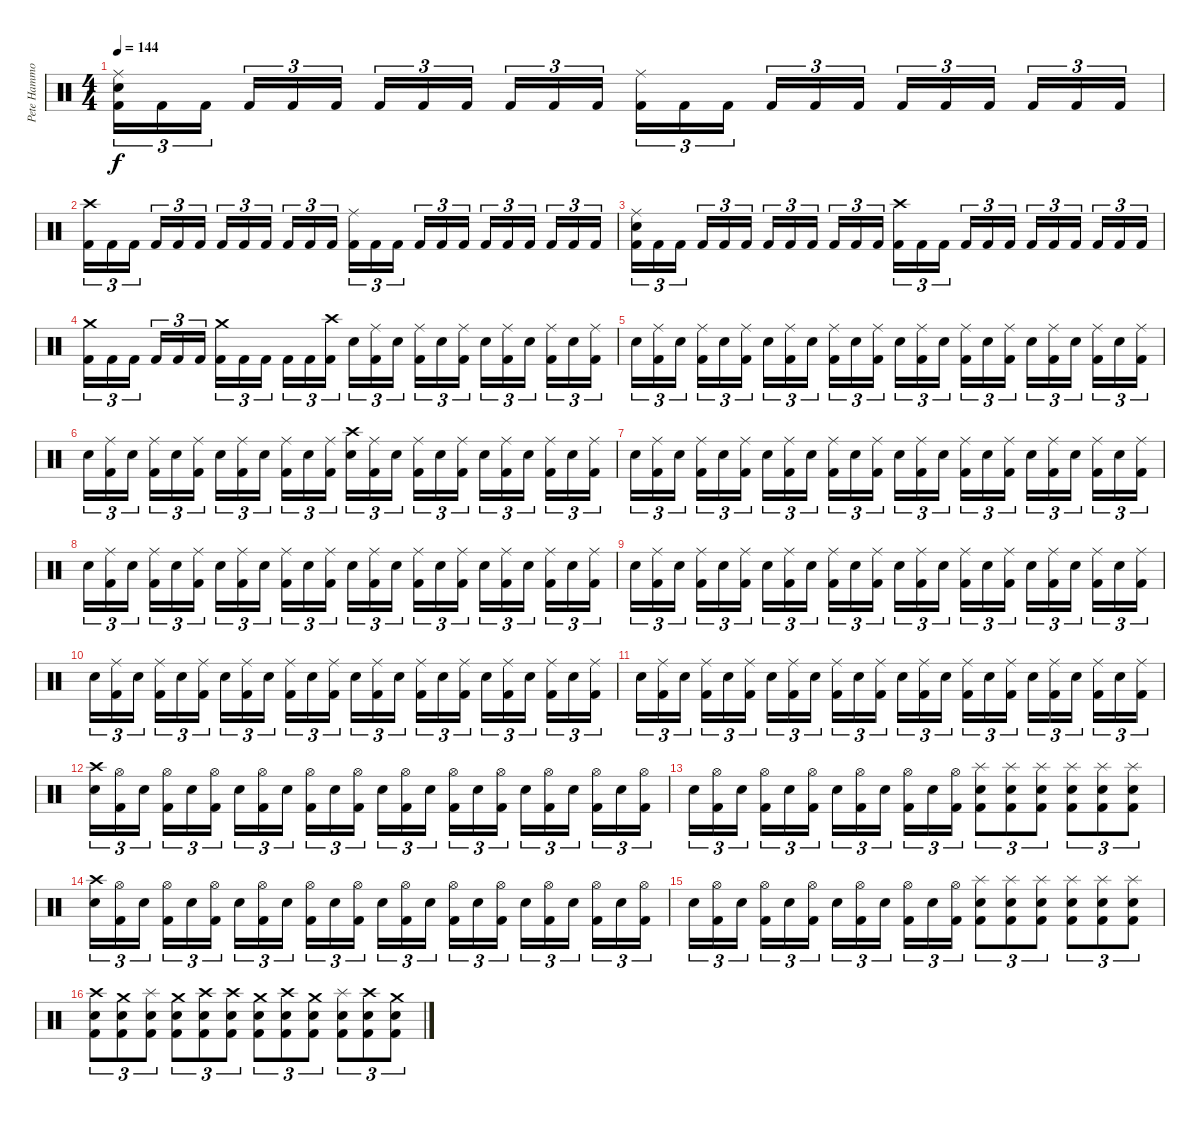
\track ("Pete Hammoura" "Pete Hammo") {instrument percussion}
\staff {score}
\articulation defaults
\ts (4 4)
\tempo 144
\clef neutral
\ks c
("Ride (middle)" "Electric Snare (hit)" "Kick (hit) 2").16{tu (3 2) dy f} "Kick (hit) 2".16{tu (3 2)} "Kick (hit) 2".16{tu (3 2)} "Kick (hit) 2".16{tu (3 2)} "Kick (hit) 2".16{tu (3 2)} "Kick (hit) 2".16{tu (3 2)} "Kick (hit) 2".16{tu (3 2)} "Kick (hit) 2".16{tu (3 2)} "Kick (hit) 2".16{tu (3 2)} "Kick (hit) 2".16{tu (3 2)} "Kick (hit) 2".16{tu (3 2)} "Kick (hit) 2".16{tu (3 2)} ("Ride (middle)" "Kick (hit) 2").16{tu (3 2)} "Kick (hit) 2".16{tu (3 2)} "Kick (hit) 2".16{tu (3 2)} "Kick (hit) 2".16{tu (3 2)} "Kick (hit) 2".16{tu (3 2)} "Kick (hit) 2".16{tu (3 2)} "Kick (hit) 2".16{tu (3 2)} "Kick (hit) 2".16{tu (3 2)} "Kick (hit) 2".16{tu (3 2)} "Kick (hit) 2".16{tu (3 2)} "Kick (hit) 2".16{tu (3 2)} "Kick (hit) 2".16{tu (3 2)} |
("Crash high (hit)" "Kick (hit) 2").16{tu (3 2)} "Kick (hit) 2".16{tu (3 2)} "Kick (hit) 2".16{tu (3 2)} "Kick (hit) 2".16{tu (3 2)} "Kick (hit) 2".16{tu (3 2)} "Kick (hit) 2".16{tu (3 2)} "Kick (hit) 2".16{tu (3 2)} "Kick (hit) 2".16{tu (3 2)} "Kick (hit) 2".16{tu (3 2)} "Kick (hit) 2".16{tu (3 2)} "Kick (hit) 2".16{tu (3 2)} "Kick (hit) 2".16{tu (3 2)} ("Ride (middle)" "Kick (hit) 2").16{tu (3 2)} "Kick (hit) 2".16{tu (3 2)} "Kick (hit) 2".16{tu (3 2)} "Kick (hit) 2".16{tu (3 2)} "Kick (hit) 2".16{tu (3 2)} "Kick (hit) 2".16{tu (3 2)} "Kick (hit) 2".16{tu (3 2)} "Kick (hit) 2".16{tu (3 2)} "Kick (hit) 2".16{tu (3 2)} "Kick (hit) 2".16{tu (3 2)} "Kick (hit) 2".16{tu (3 2)} "Kick (hit) 2".16{tu (3 2)} |
("Ride (middle)" "Electric Snare (hit)" "Kick (hit) 2").16{tu (3 2)} "Kick (hit) 2".16{tu (3 2)} "Kick (hit) 2".16{tu (3 2)} "Kick (hit) 2".16{tu (3 2)} "Kick (hit) 2".16{tu (3 2)} "Kick (hit) 2".16{tu (3 2)} "Kick (hit) 2".16{tu (3 2)} "Kick (hit) 2".16{tu (3 2)} "Kick (hit) 2".16{tu (3 2)} "Kick (hit) 2".16{tu (3 2)} "Kick (hit) 2".16{tu (3 2)} "Kick (hit) 2".16{tu (3 2)} ("Crash high (hit)" "Kick (hit) 2").16{tu (3 2)} "Kick (hit) 2".16{tu (3 2)} "Kick (hit) 2".16{tu (3 2)} "Kick (hit) 2".16{tu (3 2)} "Kick (hit) 2".16{tu (3 2)} "Kick (hit) 2".16{tu (3 2)} "Kick (hit) 2".16{tu (3 2)} "Kick (hit) 2".16{tu (3 2)} "Kick (hit) 2".16{tu (3 2)} "Kick (hit) 2".16{tu (3 2)} "Kick (hit) 2".16{tu (3 2)} "Kick (hit) 2".16{tu (3 2)} |
("Crash medium (hit)" "Kick (hit) 2").16{tu (3 2)} "Kick (hit) 2".16{tu (3 2)} "Kick (hit) 2".16{tu (3 2)} "Kick (hit) 2".16{tu (3 2)} "Kick (hit) 2".16{tu (3 2)} "Kick (hit) 2".16{tu (3 2)} ("Crash medium (hit)" "Kick (hit) 2").16{tu (3 2)} "Kick (hit) 2".16{tu (3 2)} "Kick (hit) 2".16{tu (3 2)} "Kick (hit) 2".16{tu (3 2)} "Kick (hit) 2".16{tu (3 2)} ("Crash high (hit)" "Kick (hit) 2").16{tu (3 2)} "Electric Snare (hit)".16{tu (3 2)} ("Ride (middle)" "Kick (hit) 2").16{tu (3 2)} "Electric Snare (hit)".16{tu (3 2)} ("Ride (middle)" "Kick (hit) 2").16{tu (3 2)} "Electric Snare (hit)".16{tu (3 2)} ("Ride (middle)" "Kick (hit) 2").16{tu (3 2)} "Electric Snare (hit)".16{tu (3 2)} ("Ride (middle)" "Kick (hit) 2").16{tu (3 2)} "Electric Snare (hit)".16{tu (3 2)} ("Ride (middle)" "Kick (hit) 2").16{tu (3 2)} "Electric Snare (hit)".16{tu (3 2)} ("Ride (middle)" "Kick (hit) 2").16{tu (3 2)} |
"Electric Snare (hit)".16{tu (3 2)} ("Ride (middle)" "Kick (hit) 2").16{tu (3 2)} "Electric Snare (hit)".16{tu (3 2)} ("Ride (middle)" "Kick (hit) 2").16{tu (3 2)} "Electric Snare (hit)".16{tu (3 2)} ("Ride (middle)" "Kick (hit) 2").16{tu (3 2)} "Electric Snare (hit)".16{tu (3 2)} ("Ride (middle)" "Kick (hit) 2").16{tu (3 2)} "Electric Snare (hit)".16{tu (3 2)} ("Ride (middle)" "Kick (hit) 2").16{tu (3 2)} "Electric Snare (hit)".16{tu (3 2)} ("Ride (middle)" "Kick (hit) 2").16{tu (3 2)} "Electric Snare (hit)".16{tu (3 2)} ("Ride (middle)" "Kick (hit) 2").16{tu (3 2)} "Electric Snare (hit)".16{tu (3 2)} ("Ride (middle)" "Kick (hit) 2").16{tu (3 2)} "Electric Snare (hit)".16{tu (3 2)} ("Ride (middle)" "Kick (hit) 2").16{tu (3 2)} "Electric Snare (hit)".16{tu (3 2)} ("Ride (middle)" "Kick (hit) 2").16{tu (3 2)} "Electric Snare (hit)".16{tu (3 2)} ("Ride (middle)" "Kick (hit) 2").16{tu (3 2)} "Electric Snare (hit)".16{tu (3 2)} ("Ride (middle)" "Kick (hit) 2").16{tu (3 2)} |
"Electric Snare (hit)".16{tu (3 2)} ("Ride (middle)" "Kick (hit) 2").16{tu (3 2)} "Electric Snare (hit)".16{tu (3 2)} ("Ride (middle)" "Kick (hit) 2").16{tu (3 2)} "Electric Snare (hit)".16{tu (3 2)} ("Ride (middle)" "Kick (hit) 2").16{tu (3 2)} "Electric Snare (hit)".16{tu (3 2)} ("Ride (middle)" "Kick (hit) 2").16{tu (3 2)} "Electric Snare (hit)".16{tu (3 2)} ("Ride (middle)" "Kick (hit) 2").16{tu (3 2)} "Electric Snare (hit)".16{tu (3 2)} ("Ride (middle)" "Kick (hit) 2").16{tu (3 2)} ("Crash high (hit)" "Electric Snare (hit)").16{tu (3 2)} ("Ride (middle)" "Kick (hit) 2").16{tu (3 2)} "Electric Snare (hit)".16{tu (3 2)} ("Ride (middle)" "Kick (hit) 2").16{tu (3 2)} "Electric Snare (hit)".16{tu (3 2)} ("Ride (middle)" "Kick (hit) 2").16{tu (3 2)} "Electric Snare (hit)".16{tu (3 2)} ("Ride (middle)" "Kick (hit) 2").16{tu (3 2)} "Electric Snare (hit)".16{tu (3 2)} ("Ride (middle)" "Kick (hit) 2").16{tu (3 2)} "Electric Snare (hit)".16{tu (3 2)} ("Ride (middle)" "Kick (hit) 2").16{tu (3 2)} |
"Electric Snare (hit)".16{tu (3 2)} ("Ride (middle)" "Kick (hit) 2").16{tu (3 2)} "Electric Snare (hit)".16{tu (3 2)} ("Ride (middle)" "Kick (hit) 2").16{tu (3 2)} "Electric Snare (hit)".16{tu (3 2)} ("Ride (middle)" "Kick (hit) 2").16{tu (3 2)} "Electric Snare (hit)".16{tu (3 2)} ("Ride (middle)" "Kick (hit) 2").16{tu (3 2)} "Electric Snare (hit)".16{tu (3 2)} ("Ride (middle)" "Kick (hit) 2").16{tu (3 2)} "Electric Snare (hit)".16{tu (3 2)} ("Ride (middle)" "Kick (hit) 2").16{tu (3 2)} "Electric Snare (hit)".16{tu (3 2)} ("Ride (middle)" "Kick (hit) 2").16{tu (3 2)} "Electric Snare (hit)".16{tu (3 2)} ("Ride (middle)" "Kick (hit) 2").16{tu (3 2)} "Electric Snare (hit)".16{tu (3 2)} ("Ride (middle)" "Kick (hit) 2").16{tu (3 2)} "Electric Snare (hit)".16{tu (3 2)} ("Ride (middle)" "Kick (hit) 2").16{tu (3 2)} "Electric Snare (hit)".16{tu (3 2)} ("Ride (middle)" "Kick (hit) 2").16{tu (3 2)} "Electric Snare (hit)".16{tu (3 2)} ("Ride (middle)" "Kick (hit) 2").16{tu (3 2)} |
"Electric Snare (hit)".16{tu (3 2)} ("Ride (middle)" "Kick (hit) 2").16{tu (3 2)} "Electric Snare (hit)".16{tu (3 2)} ("Ride (middle)" "Kick (hit) 2").16{tu (3 2)} "Electric Snare (hit)".16{tu (3 2)} ("Ride (middle)" "Kick (hit) 2").16{tu (3 2)} "Electric Snare (hit)".16{tu (3 2)} ("Ride (middle)" "Kick (hit) 2").16{tu (3 2)} "Electric Snare (hit)".16{tu (3 2)} ("Ride (middle)" "Kick (hit) 2").16{tu (3 2)} "Electric Snare (hit)".16{tu (3 2)} ("Ride (middle)" "Kick (hit) 2").16{tu (3 2)} "Electric Snare (hit)".16{tu (3 2)} ("Ride (middle)" "Kick (hit) 2").16{tu (3 2)} "Electric Snare (hit)".16{tu (3 2)} ("Ride (middle)" "Kick (hit) 2").16{tu (3 2)} "Electric Snare (hit)".16{tu (3 2)} ("Ride (middle)" "Kick (hit) 2").16{tu (3 2)} "Electric Snare (hit)".16{tu (3 2)} ("Ride (middle)" "Kick (hit) 2").16{tu (3 2)} "Electric Snare (hit)".16{tu (3 2)} ("Ride (middle)" "Kick (hit) 2").16{tu (3 2)} "Electric Snare (hit)".16{tu (3 2)} ("Ride (middle)" "Kick (hit) 2").16{tu (3 2)} |
"Electric Snare (hit)".16{tu (3 2)} ("Ride (middle)" "Kick (hit) 2").16{tu (3 2)} "Electric Snare (hit)".16{tu (3 2)} ("Ride (middle)" "Kick (hit) 2").16{tu (3 2)} "Electric Snare (hit)".16{tu (3 2)} ("Ride (middle)" "Kick (hit) 2").16{tu (3 2)} "Electric Snare (hit)".16{tu (3 2)} ("Ride (middle)" "Kick (hit) 2").16{tu (3 2)} "Electric Snare (hit)".16{tu (3 2)} ("Ride (middle)" "Kick (hit) 2").16{tu (3 2)} "Electric Snare (hit)".16{tu (3 2)} ("Ride (middle)" "Kick (hit) 2").16{tu (3 2)} "Electric Snare (hit)".16{tu (3 2)} ("Ride (middle)" "Kick (hit) 2").16{tu (3 2)} "Electric Snare (hit)".16{tu (3 2)} ("Ride (middle)" "Kick (hit) 2").16{tu (3 2)} "Electric Snare (hit)".16{tu (3 2)} ("Ride (middle)" "Kick (hit) 2").16{tu (3 2)} "Electric Snare (hit)".16{tu (3 2)} ("Ride (middle)" "Kick (hit) 2").16{tu (3 2)} "Electric Snare (hit)".16{tu (3 2)} ("Ride (middle)" "Kick (hit) 2").16{tu (3 2)} "Electric Snare (hit)".16{tu (3 2)} ("Ride (middle)" "Kick (hit) 2").16{tu (3 2)} |
"Electric Snare (hit)".16{tu (3 2)} ("Ride (middle)" "Kick (hit) 2").16{tu (3 2)} "Electric Snare (hit)".16{tu (3 2)} ("Ride (middle)" "Kick (hit) 2").16{tu (3 2)} "Electric Snare (hit)".16{tu (3 2)} ("Ride (middle)" "Kick (hit) 2").16{tu (3 2)} "Electric Snare (hit)".16{tu (3 2)} ("Ride (middle)" "Kick (hit) 2").16{tu (3 2)} "Electric Snare (hit)".16{tu (3 2)} ("Ride (middle)" "Kick (hit) 2").16{tu (3 2)} "Electric Snare (hit)".16{tu (3 2)} ("Ride (middle)" "Kick (hit) 2").16{tu (3 2)} "Electric Snare (hit)".16{tu (3 2)} ("Ride (middle)" "Kick (hit) 2").16{tu (3 2)} "Electric Snare (hit)".16{tu (3 2)} ("Ride (middle)" "Kick (hit) 2").16{tu (3 2)} "Electric Snare (hit)".16{tu (3 2)} ("Ride (middle)" "Kick (hit) 2").16{tu (3 2)} "Electric Snare (hit)".16{tu (3 2)} ("Ride (middle)" "Kick (hit) 2").16{tu (3 2)} "Electric Snare (hit)".16{tu (3 2)} ("Ride (middle)" "Kick (hit) 2").16{tu (3 2)} "Electric Snare (hit)".16{tu (3 2)} ("Ride (middle)" "Kick (hit) 2").16{tu (3 2)} |
"Electric Snare (hit)".16{tu (3 2)} ("Ride (middle)" "Kick (hit) 2").16{tu (3 2)} "Electric Snare (hit)".16{tu (3 2)} ("Ride (middle)" "Kick (hit) 2").16{tu (3 2)} "Electric Snare (hit)".16{tu (3 2)} ("Ride (middle)" "Kick (hit) 2").16{tu (3 2)} "Electric Snare (hit)".16{tu (3 2)} ("Ride (middle)" "Kick (hit) 2").16{tu (3 2)} "Electric Snare (hit)".16{tu (3 2)} ("Ride (middle)" "Kick (hit) 2").16{tu (3 2)} "Electric Snare (hit)".16{tu (3 2)} ("Ride (middle)" "Kick (hit) 2").16{tu (3 2)} "Electric Snare (hit)".16{tu (3 2)} ("Ride (middle)" "Kick (hit) 2").16{tu (3 2)} "Electric Snare (hit)".16{tu (3 2)} ("Ride (middle)" "Kick (hit) 2").16{tu (3 2)} "Electric Snare (hit)".16{tu (3 2)} ("Ride (middle)" "Kick (hit) 2").16{tu (3 2)} "Electric Snare (hit)".16{tu (3 2)} ("Ride (middle)" "Kick (hit) 2").16{tu (3 2)} "Electric Snare (hit)".16{tu (3 2)} ("Ride (middle)" "Kick (hit) 2").16{tu (3 2)} "Electric Snare (hit)".16{tu (3 2)} ("Ride (middle)" "Kick (hit) 2").16{tu (3 2)} |
("Crash high (hit)" "Electric Snare (hit)").16{tu (3 2)} ("Hi-Hat (open)" "Kick (hit) 2").16{tu (3 2)} "Electric Snare (hit)".16{tu (3 2)} ("Hi-Hat (open)" "Kick (hit) 2").16{tu (3 2)} "Electric Snare (hit)".16{tu (3 2)} ("Hi-Hat (open)" "Kick (hit) 2").16{tu (3 2)} "Electric Snare (hit)".16{tu (3 2)} ("Hi-Hat (open)" "Kick (hit) 2").16{tu (3 2)} "Electric Snare (hit)".16{tu (3 2)} ("Hi-Hat (open)" "Kick (hit) 2").16{tu (3 2)} "Electric Snare (hit)".16{tu (3 2)} ("Hi-Hat (open)" "Kick (hit) 2").16{tu (3 2)} "Electric Snare (hit)".16{tu (3 2)} ("Hi-Hat (open)" "Kick (hit) 2").16{tu (3 2)} "Electric Snare (hit)".16{tu (3 2)} ("Hi-Hat (open)" "Kick (hit) 2").16{tu (3 2)} "Electric Snare (hit)".16{tu (3 2)} ("Hi-Hat (open)" "Kick (hit) 2").16{tu (3 2)} "Electric Snare (hit)".16{tu (3 2)} ("Hi-Hat (open)" "Kick (hit) 2").16{tu (3 2)} "Electric Snare (hit)".16{tu (3 2)} ("Hi-Hat (open)" "Kick (hit) 2").16{tu (3 2)} "Electric Snare (hit)".16{tu (3 2)} ("Hi-Hat (open)" "Kick (hit) 2").16{tu (3 2)} |
"Electric Snare (hit)".16{tu (3 2)} ("Hi-Hat (open)" "Kick (hit) 2").16{tu (3 2)} "Electric Snare (hit)".16{tu (3 2)} ("Hi-Hat (open)" "Kick (hit) 2").16{tu (3 2)} "Electric Snare (hit)".16{tu (3 2)} ("Hi-Hat (open)" "Kick (hit) 2").16{tu (3 2)} "Electric Snare (hit)".16{tu (3 2)} ("Hi-Hat (open)" "Kick (hit) 2").16{tu (3 2)} "Electric Snare (hit)".16{tu (3 2)} ("Hi-Hat (open)" "Kick (hit) 2").16{tu (3 2)} "Electric Snare (hit)".16{tu (3 2)} ("Hi-Hat (open)" "Kick (hit) 2").16{tu (3 2)} ("Splash (hit)" "Electric Snare (hit)" "Kick (hit) 2").8{tu (3 2)} ("Splash (hit)" "Electric Snare (hit)" "Kick (hit) 2").8{tu (3 2)} ("Splash (hit)" "Electric Snare (hit)" "Kick (hit) 2").8{tu (3 2)} ("Splash (hit)" "Electric Snare (hit)" "Kick (hit) 2").8{tu (3 2)} ("Splash (hit)" "Electric Snare (hit)" "Kick (hit) 2").8{tu (3 2)} ("Splash (hit)" "Electric Snare (hit)" "Kick (hit) 2").8{tu (3 2)} |
("Crash high (hit)" "Electric Snare (hit)").16{tu (3 2)} ("Hi-Hat (open)" "Kick (hit) 2").16{tu (3 2)} "Electric Snare (hit)".16{tu (3 2)} ("Hi-Hat (open)" "Kick (hit) 2").16{tu (3 2)} "Electric Snare (hit)".16{tu (3 2)} ("Hi-Hat (open)" "Kick (hit) 2").16{tu (3 2)} "Electric Snare (hit)".16{tu (3 2)} ("Hi-Hat (open)" "Kick (hit) 2").16{tu (3 2)} "Electric Snare (hit)".16{tu (3 2)} ("Hi-Hat (open)" "Kick (hit) 2").16{tu (3 2)} "Electric Snare (hit)".16{tu (3 2)} ("Hi-Hat (open)" "Kick (hit) 2").16{tu (3 2)} "Electric Snare (hit)".16{tu (3 2)} ("Hi-Hat (open)" "Kick (hit) 2").16{tu (3 2)} "Electric Snare (hit)".16{tu (3 2)} ("Hi-Hat (open)" "Kick (hit) 2").16{tu (3 2)} "Electric Snare (hit)".16{tu (3 2)} ("Hi-Hat (open)" "Kick (hit) 2").16{tu (3 2)} "Electric Snare (hit)".16{tu (3 2)} ("Hi-Hat (open)" "Kick (hit) 2").16{tu (3 2)} "Electric Snare (hit)".16{tu (3 2)} ("Hi-Hat (open)" "Kick (hit) 2").16{tu (3 2)} "Electric Snare (hit)".16{tu (3 2)} ("Hi-Hat (open)" "Kick (hit) 2").16{tu (3 2)} |
"Electric Snare (hit)".16{tu (3 2)} ("Hi-Hat (open)" "Kick (hit) 2").16{tu (3 2)} "Electric Snare (hit)".16{tu (3 2)} ("Hi-Hat (open)" "Kick (hit) 2").16{tu (3 2)} "Electric Snare (hit)".16{tu (3 2)} ("Hi-Hat (open)" "Kick (hit) 2").16{tu (3 2)} "Electric Snare (hit)".16{tu (3 2)} ("Hi-Hat (open)" "Kick (hit) 2").16{tu (3 2)} "Electric Snare (hit)".16{tu (3 2)} ("Hi-Hat (open)" "Kick (hit) 2").16{tu (3 2)} "Electric Snare (hit)".16{tu (3 2)} ("Hi-Hat (open)" "Kick (hit) 2").16{tu (3 2)} ("Splash (hit)" "Electric Snare (hit)" "Kick (hit) 2").8{tu (3 2)} ("Splash (hit)" "Electric Snare (hit)" "Kick (hit) 2").8{tu (3 2)} ("Splash (hit)" "Electric Snare (hit)" "Kick (hit) 2").8{tu (3 2)} ("Splash (hit)" "Electric Snare (hit)" "Kick (hit) 2").8{tu (3 2)} ("Splash (hit)" "Electric Snare (hit)" "Kick (hit) 2").8{tu (3 2)} ("Splash (hit)" "Electric Snare (hit)" "Kick (hit) 2").8{tu (3 2)} |
("Crash high (hit)" "Electric Snare (hit)" "Kick (hit) 2").8{tu (3 2)} ("Crash medium (hit)" "Electric Snare (hit)" "Kick (hit) 2").8{tu (3 2)} ("Splash (hit)" "Electric Snare (hit)" "Kick (hit) 2").8{tu (3 2)} ("Crash medium (hit)" "Electric Snare (hit)" "Kick (hit) 2").8{tu (3 2)} ("Crash high (hit)" "Electric Snare (hit)" "Kick (hit) 2").8{tu (3 2)} ("Crash high (hit)" "Electric Snare (hit)" "Kick (hit) 2").8{tu (3 2)} ("Crash medium (hit)" "Electric Snare (hit)" "Kick (hit) 2").8{tu (3 2)} ("Crash high (hit)" "Electric Snare (hit)" "Kick (hit) 2").8{tu (3 2)} ("Crash medium (hit)" "Electric Snare (hit)" "Kick (hit) 2").8{tu (3 2)} ("Splash (hit)" "Electric Snare (hit)" "Kick (hit) 2").8{tu (3 2)} ("Crash high (hit)" "Electric Snare (hit)" "Kick (hit) 2").8{tu (3 2)} ("Crash medium (hit)" "Electric Snare (hit)" "Kick (hit) 2").8{tu (3 2)}
